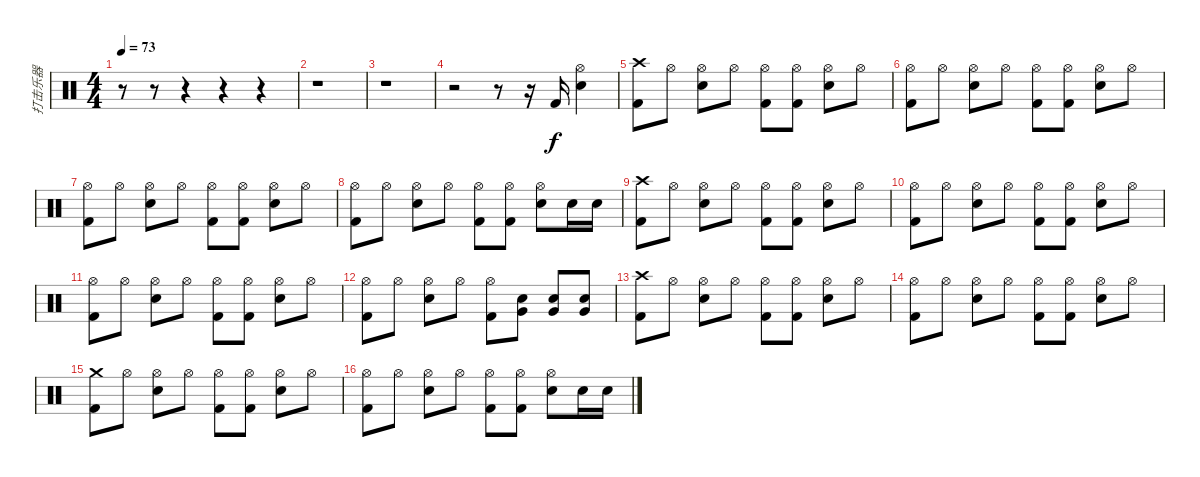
\track ("打击乐器" "打击乐器") {instrument percussion}
\staff {score}
\articulation defaults
\ts (4 4)
\tempo 73
\clef neutral
\ks c
r.8{dy fff} r.8 r.4 r.4 r.4 |
r.1 |
r.1 |
r.2 r.8 r.16 "Kick (hit) 2".16{dy f} ("Hi-Hat (open)" "Electric Snare (hit)").4 |
("Crash high (hit)" "Kick (hit) 2").8 "Hi-Hat (open)".8 ("Hi-Hat (open)" "Electric Snare (hit)").8 "Hi-Hat (open)".8 ("Hi-Hat (open)" "Kick (hit) 2").8 ("Hi-Hat (open)" "Kick (hit) 2").8 ("Hi-Hat (open)" "Electric Snare (hit)").8 "Hi-Hat (open)".8 |
("Hi-Hat (open)" "Kick (hit) 2").8 "Hi-Hat (open)".8 ("Hi-Hat (open)" "Electric Snare (hit)").8 "Hi-Hat (open)".8 ("Hi-Hat (open)" "Kick (hit) 2").8 ("Hi-Hat (open)" "Kick (hit) 2").8 ("Hi-Hat (open)" "Electric Snare (hit)").8 "Hi-Hat (open)".8 |
("Hi-Hat (open)" "Kick (hit) 2").8 "Hi-Hat (open)".8 ("Hi-Hat (open)" "Electric Snare (hit)").8 "Hi-Hat (open)".8 ("Hi-Hat (open)" "Kick (hit) 2").8 ("Hi-Hat (open)" "Kick (hit) 2").8 ("Hi-Hat (open)" "Electric Snare (hit)").8 "Hi-Hat (open)".8 |
("Hi-Hat (open)" "Kick (hit) 2").8 "Hi-Hat (open)".8 ("Hi-Hat (open)" "Electric Snare (hit)").8 "Hi-Hat (open)".8 ("Hi-Hat (open)" "Kick (hit) 2").8 ("Hi-Hat (open)" "Kick (hit) 2").8 ("Hi-Hat (open)" "Electric Snare (hit)").8 "Electric Snare (hit)".16 "Electric Snare (hit)".16 |
("Crash high (hit)" "Kick (hit) 2").8 "Hi-Hat (open)".8 ("Hi-Hat (open)" "Electric Snare (hit)").8 "Hi-Hat (open)".8 ("Hi-Hat (open)" "Kick (hit) 2").8 ("Hi-Hat (open)" "Kick (hit) 2").8 ("Hi-Hat (open)" "Electric Snare (hit)").8 "Hi-Hat (open)".8 |
("Hi-Hat (open)" "Kick (hit) 2").8 "Hi-Hat (open)".8 ("Hi-Hat (open)" "Electric Snare (hit)").8 "Hi-Hat (open)".8 ("Hi-Hat (open)" "Kick (hit) 2").8 ("Hi-Hat (open)" "Kick (hit) 2").8 ("Hi-Hat (open)" "Electric Snare (hit)").8 "Hi-Hat (open)".8 |
("Hi-Hat (open)" "Kick (hit) 2").8 "Hi-Hat (open)".8 ("Hi-Hat (open)" "Electric Snare (hit)").8 "Hi-Hat (open)".8 ("Hi-Hat (open)" "Kick (hit) 2").8 ("Hi-Hat (open)" "Kick (hit) 2").8 ("Hi-Hat (open)" "Electric Snare (hit)").8 "Hi-Hat (open)".8 |
("Hi-Hat (open)" "Kick (hit) 2").8 "Hi-Hat (open)".8 ("Hi-Hat (open)" "Electric Snare (hit)").8 "Hi-Hat (open)".8 ("Hi-Hat (open)" "Kick (hit) 2").8 ("Very Low Tom (hit)" "Electric Snare (hit)").8 ("Very Low Tom (hit)" "Electric Snare (hit)").8 ("Very Low Tom (hit)" "Electric Snare (hit)").8 |
("Crash high (hit)" "Kick (hit) 2").8 "Hi-Hat (open)".8 ("Hi-Hat (open)" "Electric Snare (hit)").8 "Hi-Hat (open)".8 ("Hi-Hat (open)" "Kick (hit) 2").8 ("Hi-Hat (open)" "Kick (hit) 2").8 ("Hi-Hat (open)" "Electric Snare (hit)").8 "Hi-Hat (open)".8 |
("Hi-Hat (open)" "Kick (hit) 2").8 "Hi-Hat (open)".8 ("Hi-Hat (open)" "Electric Snare (hit)").8 "Hi-Hat (open)".8 ("Hi-Hat (open)" "Kick (hit) 2").8 ("Hi-Hat (open)" "Kick (hit) 2").8 ("Hi-Hat (open)" "Electric Snare (hit)").8 "Hi-Hat (open)".8 |
("Crash medium (hit)" "Kick (hit) 2").8 "Hi-Hat (open)".8 ("Hi-Hat (open)" "Electric Snare (hit)").8 "Hi-Hat (open)".8 ("Hi-Hat (open)" "Kick (hit) 2").8 ("Hi-Hat (open)" "Kick (hit) 2").8 ("Hi-Hat (open)" "Electric Snare (hit)").8 "Hi-Hat (open)".8 |
("Hi-Hat (open)" "Kick (hit) 2").8 "Hi-Hat (open)".8 ("Hi-Hat (open)" "Electric Snare (hit)").8 "Hi-Hat (open)".8 ("Hi-Hat (open)" "Kick (hit) 2").8 ("Hi-Hat (open)" "Kick (hit) 2").8 ("Hi-Hat (open)" "Electric Snare (hit)").8 "Electric Snare (hit)".16 "Electric Snare (hit)".16
